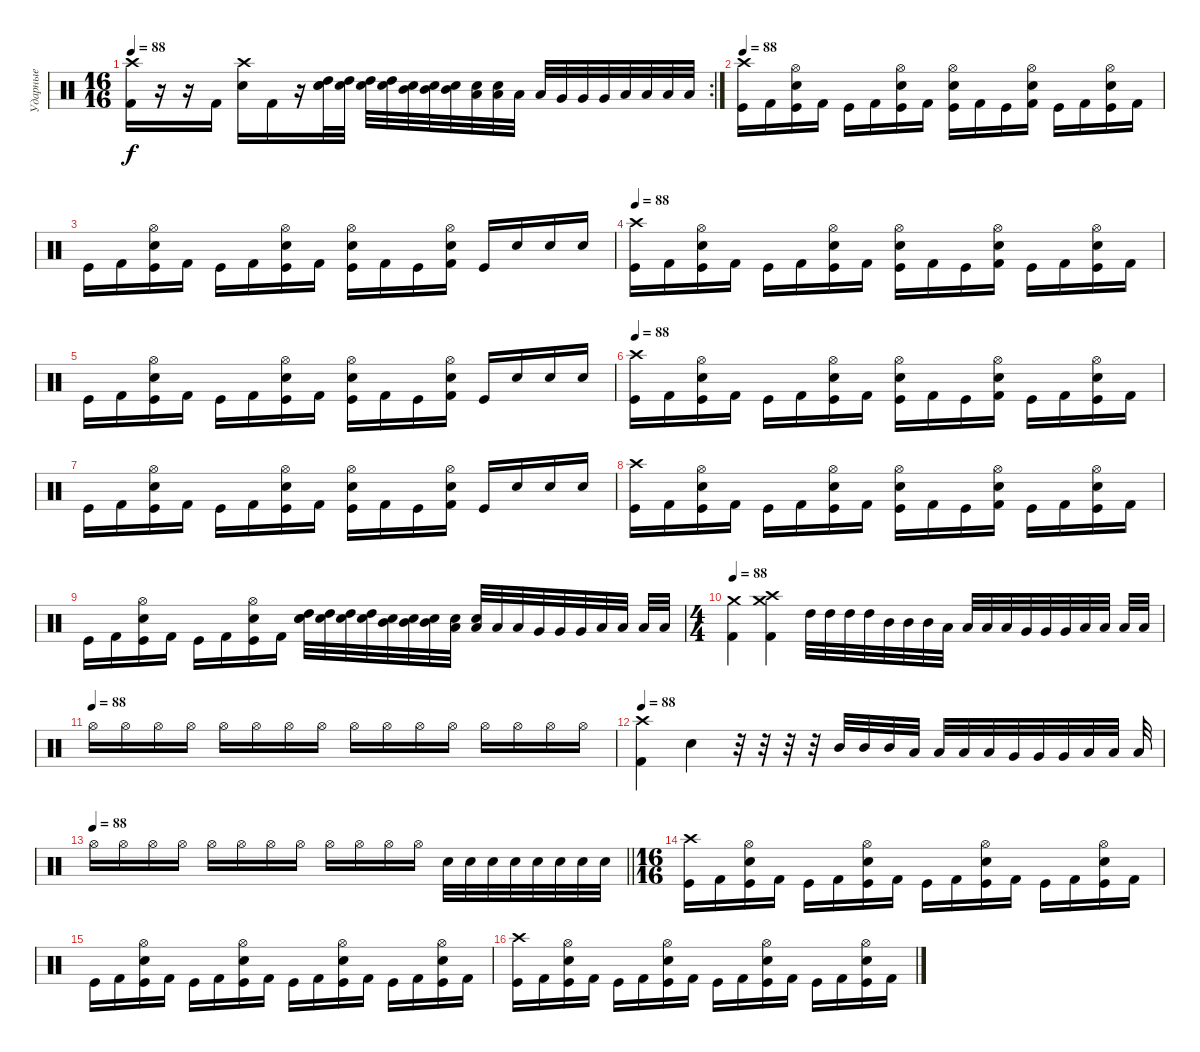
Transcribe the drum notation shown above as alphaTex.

\track ("Ударные" "Ударные") {instrument percussion}
\staff {score}
\articulation defaults
\rc 2
\ts (16 16)
\tempo 88
\clef neutral
\ks c
("Crash high (hit)" "Kick (hit) 2").16{dy f} r.16 r.16 "Kick (hit) 2".16 ("Crash high (hit)" "Electric Snare (hit)").16 "Kick (hit) 2".16 r.16 ("Snare (hit) 2" "High Tom (hit)" "Electric Snare (hit)").32 ("High Tom (hit)" "Electric Snare (hit)").32 ("High Tom (hit)" "Electric Snare (hit)").32 ("High Tom (hit)" "Electric Snare (hit)").32 ("Mid Tom (hit)" "Electric Snare (hit)").32 ("Mid Tom (hit)" "Electric Snare (hit)").32 ("Mid Tom (hit)" "Electric Snare (hit)").32 ("Low Tom (hit)" "Electric Snare (hit)").32 ("Low Tom (hit)" "Electric Snare (hit)").32 "Low Tom (hit)".32 "Low Tom (hit)".32 "Very Low Tom (hit)".32 "Very Low Tom (hit)".32 "Very Low Tom (hit)".32 "Low Floor Tom (hit)".32 "Low Floor Tom (hit)".32 "Low Floor Tom (hit)".32 "Low Floor Tom (hit)".32 |
\tempo 88
("Crash high (hit)" "Kick (hit)").16 "Kick (hit) 2".16 ("Hi-Hat (open)" "Kick (hit)" "Electric Snare (hit)").16 "Kick (hit) 2".16 "Kick (hit)".16 "Kick (hit) 2".16 ("Hi-Hat (open)" "Kick (hit)" "Electric Snare (hit)").16 "Kick (hit) 2".16 ("Electric Snare (hit)" "Kick (hit)" "Hi-Hat (open)").16 "Kick (hit) 2".16 "Kick (hit)".16 ("Electric Snare (hit)" "Kick (hit) 2" "Hi-Hat (open)").16 "Kick (hit)".16 "Kick (hit) 2".16 ("Hi-Hat (open)" "Kick (hit)" "Electric Snare (hit)").16 "Kick (hit) 2".16 |
"Kick (hit)".16 "Kick (hit) 2".16 ("Hi-Hat (open)" "Kick (hit)" "Electric Snare (hit)").16 "Kick (hit) 2".16 "Kick (hit)".16 "Kick (hit) 2".16 ("Hi-Hat (open)" "Kick (hit)" "Electric Snare (hit)").16 "Kick (hit) 2".16 ("Electric Snare (hit)" "Kick (hit)" "Hi-Hat (open)").16 "Kick (hit) 2".16 "Kick (hit)".16 ("Electric Snare (hit)" "Kick (hit) 2" "Hi-Hat (open)").16 "Kick (hit)".16 "Snare (hit) 2".16 "Snare (hit) 2".16 "Snare (hit) 2".16 |
\tempo 88
("Crash high (hit)" "Kick (hit)").16 "Kick (hit) 2".16 ("Hi-Hat (open)" "Kick (hit)" "Electric Snare (hit)").16 "Kick (hit) 2".16 "Kick (hit)".16 "Kick (hit) 2".16 ("Hi-Hat (open)" "Kick (hit)" "Electric Snare (hit)").16 "Kick (hit) 2".16 ("Electric Snare (hit)" "Kick (hit)" "Hi-Hat (open)").16 "Kick (hit) 2".16 "Kick (hit)".16 ("Electric Snare (hit)" "Kick (hit) 2" "Hi-Hat (open)").16 "Kick (hit)".16 "Kick (hit) 2".16 ("Hi-Hat (open)" "Kick (hit)" "Electric Snare (hit)").16 "Kick (hit) 2".16 |
"Kick (hit)".16 "Kick (hit) 2".16 ("Hi-Hat (open)" "Kick (hit)" "Electric Snare (hit)").16 "Kick (hit) 2".16 "Kick (hit)".16 "Kick (hit) 2".16 ("Hi-Hat (open)" "Kick (hit)" "Electric Snare (hit)").16 "Kick (hit) 2".16 ("Electric Snare (hit)" "Kick (hit)" "Hi-Hat (open)").16 "Kick (hit) 2".16 "Kick (hit)".16 ("Electric Snare (hit)" "Kick (hit) 2" "Hi-Hat (open)").16 "Kick (hit)".16 "Snare (hit) 2".16 "Snare (hit) 2".16 "Snare (hit) 2".16 |
\tempo 88
("Crash high (hit)" "Kick (hit)").16 "Kick (hit) 2".16 ("Hi-Hat (open)" "Kick (hit)" "Electric Snare (hit)").16 "Kick (hit) 2".16 "Kick (hit)".16 "Kick (hit) 2".16 ("Hi-Hat (open)" "Kick (hit)" "Electric Snare (hit)").16 "Kick (hit) 2".16 ("Electric Snare (hit)" "Kick (hit)" "Hi-Hat (open)").16 "Kick (hit) 2".16 "Kick (hit)".16 ("Electric Snare (hit)" "Kick (hit) 2" "Hi-Hat (open)").16 "Kick (hit)".16 "Kick (hit) 2".16 ("Hi-Hat (open)" "Kick (hit)" "Electric Snare (hit)").16 "Kick (hit) 2".16 |
"Kick (hit)".16 "Kick (hit) 2".16 ("Hi-Hat (open)" "Kick (hit)" "Electric Snare (hit)").16 "Kick (hit) 2".16 "Kick (hit)".16 "Kick (hit) 2".16 ("Hi-Hat (open)" "Kick (hit)" "Electric Snare (hit)").16 "Kick (hit) 2".16 ("Electric Snare (hit)" "Kick (hit)" "Hi-Hat (open)").16 "Kick (hit) 2".16 "Kick (hit)".16 ("Electric Snare (hit)" "Kick (hit) 2" "Hi-Hat (open)").16 "Kick (hit)".16 "Snare (hit) 2".16 "Snare (hit) 2".16 "Snare (hit) 2".16 |
("Crash high (hit)" "Kick (hit)").16 "Kick (hit) 2".16 ("Hi-Hat (open)" "Kick (hit)" "Electric Snare (hit)").16 "Kick (hit) 2".16 "Kick (hit)".16 "Kick (hit) 2".16 ("Hi-Hat (open)" "Kick (hit)" "Electric Snare (hit)").16 "Kick (hit) 2".16 ("Electric Snare (hit)" "Kick (hit)" "Hi-Hat (open)").16 "Kick (hit) 2".16 "Kick (hit)".16 ("Electric Snare (hit)" "Kick (hit) 2" "Hi-Hat (open)").16 "Kick (hit)".16 "Kick (hit) 2".16 ("Hi-Hat (open)" "Kick (hit)" "Electric Snare (hit)").16 "Kick (hit) 2".16 |
"Kick (hit)".16 "Kick (hit) 2".16 ("Hi-Hat (open)" "Kick (hit)" "Electric Snare (hit)").16 "Kick (hit) 2".16 "Kick (hit)".16 "Kick (hit) 2".16 ("Hi-Hat (open)" "Kick (hit)" "Electric Snare (hit)").16 "Kick (hit) 2".16 ("Snare (hit) 2" "High Tom (hit)" "Electric Snare (hit)").32 ("High Tom (hit)" "Electric Snare (hit)").32 ("High Tom (hit)" "Electric Snare (hit)").32 ("High Tom (hit)" "Electric Snare (hit)").32 ("Mid Tom (hit)" "Electric Snare (hit)").32 ("Mid Tom (hit)" "Electric Snare (hit)").32 ("Mid Tom (hit)" "Electric Snare (hit)").32 ("Low Tom (hit)" "Electric Snare (hit)").32 ("Low Tom (hit)" "Electric Snare (hit)").32 "Low Tom (hit)".32 "Low Tom (hit)".32 "Very Low Tom (hit)".32 "Very Low Tom (hit)".32 "Very Low Tom (hit)".32 "Low Floor Tom (hit)".32 "Low Floor Tom (hit)".32 "Low Floor Tom (hit)".32 "Low Floor Tom (hit)".32 |
\ts (4 4)
\tempo 88
("Crash medium (hit)" "Kick (hit) 2").4 ("Kick (hit) 2" "Crash medium (hit)" "Crash high (hit)").4 "High Tom (hit)".32 "High Tom (hit)".32 "High Tom (hit)".32 "High Tom (hit)".32 "Mid Tom (hit)".32 "Mid Tom (hit)".32 "Mid Tom (hit)".32 "Low Tom (hit)".32 "Low Tom (hit)".32 "Low Tom (hit)".32 "Low Tom (hit)".32 "Very Low Tom (hit)".32 "Very Low Tom (hit)".32 "Very Low Tom (hit)".32 "Low Floor Tom (hit)".32 "Low Floor Tom (hit)".32 "Low Floor Tom (hit)".32 "Low Floor Tom (hit)".32 |
\tempo (88)
"Hi-Hat (open)".16 "Hi-Hat (open)".16 "Hi-Hat (open)".16 "Hi-Hat (open)".16 "Hi-Hat (open)".16 "Hi-Hat (open)".16 "Hi-Hat (open)".16 "Hi-Hat (open)".16 "Hi-Hat (open)".16 "Hi-Hat (open)".16 "Hi-Hat (open)".16 "Hi-Hat (open)".16 "Hi-Hat (open)".16 "Hi-Hat (open)".16 "Hi-Hat (open)".16 "Hi-Hat (open)".16 |
\tempo 88
("Crash high (hit)" "Kick (hit) 2").4 "Electric Snare (hit)".4 r.32 r.32 r.32 r.32 "Mid Tom (hit)".32 "Mid Tom (hit)".32 "Mid Tom (hit)".32 "Low Tom (hit)".32 "Low Tom (hit)".32 "Low Tom (hit)".32 "Low Tom (hit)".32 "Very Low Tom (hit)".32 "Very Low Tom (hit)".32 "Very Low Tom (hit)".32 "Low Floor Tom (hit)".32 "Low Floor Tom (hit)".32 "Low Floor Tom (hit)".32 |
\tempo 88
\barLineRight lightlight "Hi-Hat (open)".16 "Hi-Hat (open)".16 "Hi-Hat (open)".16 "Hi-Hat (open)".16 "Hi-Hat (open)".16 "Hi-Hat (open)".16 "Hi-Hat (open)".16 "Hi-Hat (open)".16 "Hi-Hat (open)".16 "Hi-Hat (open)".16 "Hi-Hat (open)".16 "Hi-Hat (open)".16 "Electric Snare (hit)".32 "Electric Snare (hit)".32 "Electric Snare (hit)".32 "Electric Snare (hit)".32 "Electric Snare (hit)".32 "Electric Snare (hit)".32 "Electric Snare (hit)".32 "Electric Snare (hit)".32
|
\ts (16 16)
("Crash high (hit)" "Kick (hit)").16 "Kick (hit) 2".16 ("Hi-Hat (open)" "Kick (hit)" "Electric Snare (hit)").16 "Kick (hit) 2".16 "Kick (hit)".16 "Kick (hit) 2".16 ("Hi-Hat (open)" "Kick (hit)" "Electric Snare (hit)").16 "Kick (hit) 2".16 "Kick (hit)".16 "Kick (hit) 2".16 ("Hi-Hat (open)" "Kick (hit)" "Electric Snare (hit)").16 "Kick (hit) 2".16 "Kick (hit)".16 "Kick (hit) 2".16 ("Hi-Hat (open)" "Kick (hit)" "Electric Snare (hit)").16 "Kick (hit) 2".16 |
"Kick (hit)".16 "Kick (hit) 2".16 ("Hi-Hat (open)" "Kick (hit)" "Electric Snare (hit)").16 "Kick (hit) 2".16 "Kick (hit)".16 "Kick (hit) 2".16 ("Hi-Hat (open)" "Kick (hit)" "Electric Snare (hit)").16 "Kick (hit) 2".16 "Kick (hit)".16 "Kick (hit) 2".16 ("Electric Snare (hit)" "Kick (hit)" "Hi-Hat (open)").16 "Kick (hit) 2".16 "Kick (hit)".16 "Kick (hit) 2".16 ("Electric Snare (hit)" "Kick (hit)" "Hi-Hat (open)").16 "Kick (hit) 2".16 |
("Crash high (hit)" "Kick (hit)").16 "Kick (hit) 2".16 ("Hi-Hat (open)" "Kick (hit)" "Electric Snare (hit)").16 "Kick (hit) 2".16 "Kick (hit)".16 "Kick (hit) 2".16 ("Hi-Hat (open)" "Kick (hit)" "Electric Snare (hit)").16 "Kick (hit) 2".16 "Kick (hit)".16 "Kick (hit) 2".16 ("Hi-Hat (open)" "Kick (hit)" "Electric Snare (hit)").16 "Kick (hit) 2".16 "Kick (hit)".16 "Kick (hit) 2".16 ("Hi-Hat (open)" "Kick (hit)" "Electric Snare (hit)").16 "Kick (hit) 2".16
